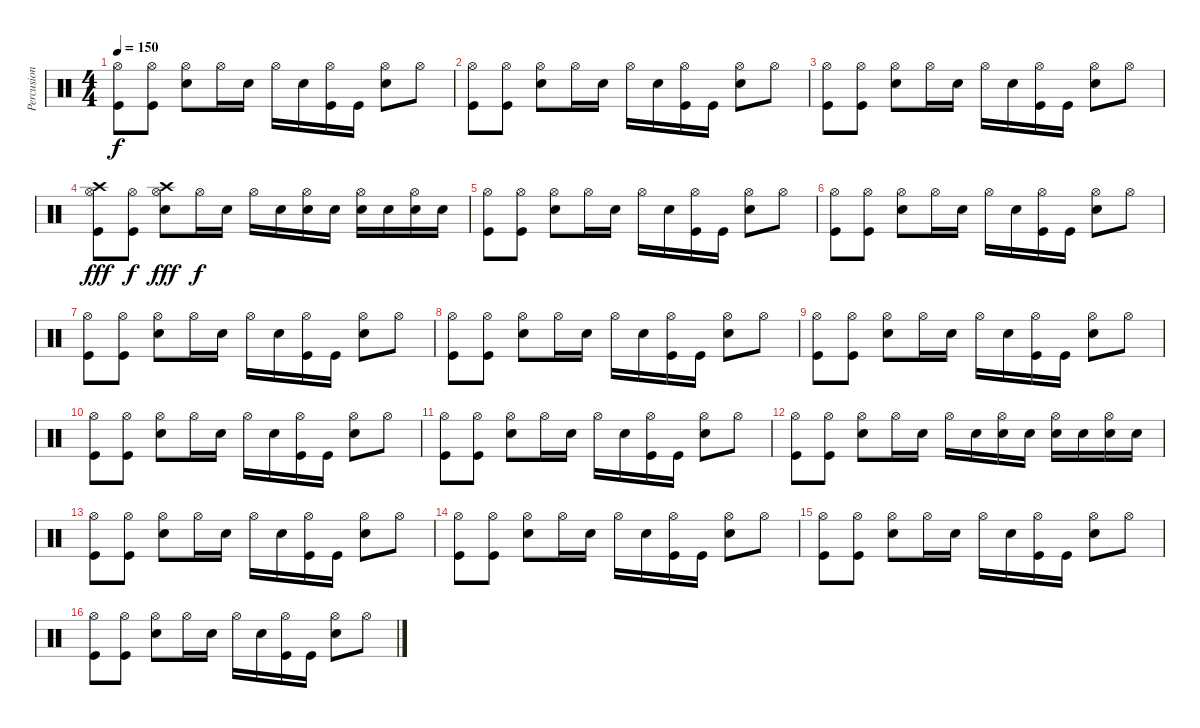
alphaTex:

\track ("Percusion" "Percusion") {instrument percussion}
\staff {score}
\articulation defaults
\ts (4 4)
\tempo 150
\clef neutral
\ks c
("Hi-Hat (open)" "Kick (hit)").8{dy f} ("Hi-Hat (open)" "Kick (hit)").8 ("Hi-Hat (open)" "Electric Snare (hit)").8 "Hi-Hat (open)".16 "Electric Snare (hit)".16 "Hi-Hat (open)".16 "Electric Snare (hit)".16 ("Hi-Hat (open)" "Kick (hit)").16 "Kick (hit)".16 ("Hi-Hat (open)" "Electric Snare (hit)").8 "Hi-Hat (open)".8 |
("Hi-Hat (open)" "Kick (hit)").8 ("Hi-Hat (open)" "Kick (hit)").8 ("Hi-Hat (open)" "Electric Snare (hit)").8 "Hi-Hat (open)".16 "Electric Snare (hit)".16 "Hi-Hat (open)".16 "Electric Snare (hit)".16 ("Hi-Hat (open)" "Kick (hit)").16 "Kick (hit)".16 ("Hi-Hat (open)" "Electric Snare (hit)").8 "Hi-Hat (open)".8 |
("Hi-Hat (open)" "Kick (hit)").8 ("Hi-Hat (open)" "Kick (hit)").8 ("Hi-Hat (open)" "Electric Snare (hit)").8 "Hi-Hat (open)".16 "Electric Snare (hit)".16 "Hi-Hat (open)".16 "Electric Snare (hit)".16 ("Hi-Hat (open)" "Kick (hit)").16 "Kick (hit)".16 ("Hi-Hat (open)" "Electric Snare (hit)").8 "Hi-Hat (open)".8 |
("Crash high (hit)" "Hi-Hat (open)" "Kick (hit)").8{dy fff} ("Hi-Hat (open)" "Kick (hit)").8{dy f} ("Crash high (hit)" "Hi-Hat (open)" "Electric Snare (hit)").8{dy fff} "Hi-Hat (open)".16{dy f} "Electric Snare (hit)".16 "Hi-Hat (open)".16 "Electric Snare (hit)".16 ("Hi-Hat (open)" "Electric Snare (hit)").16 "Electric Snare (hit)".16 ("Hi-Hat (open)" "Electric Snare (hit)").16 "Electric Snare (hit)".16 ("Hi-Hat (open)" "Electric Snare (hit)").16 "Electric Snare (hit)".16 |
("Hi-Hat (open)" "Kick (hit)").8 ("Hi-Hat (open)" "Kick (hit)").8 ("Hi-Hat (open)" "Electric Snare (hit)").8 "Hi-Hat (open)".16 "Electric Snare (hit)".16 "Hi-Hat (open)".16 "Electric Snare (hit)".16 ("Hi-Hat (open)" "Kick (hit)").16 "Kick (hit)".16 ("Hi-Hat (open)" "Electric Snare (hit)").8 "Hi-Hat (open)".8 |
("Hi-Hat (open)" "Kick (hit)").8 ("Hi-Hat (open)" "Kick (hit)").8 ("Hi-Hat (open)" "Electric Snare (hit)").8 "Hi-Hat (open)".16 "Electric Snare (hit)".16 "Hi-Hat (open)".16 "Electric Snare (hit)".16 ("Hi-Hat (open)" "Kick (hit)").16 "Kick (hit)".16 ("Hi-Hat (open)" "Electric Snare (hit)").8 "Hi-Hat (open)".8 |
("Hi-Hat (open)" "Kick (hit)").8 ("Hi-Hat (open)" "Kick (hit)").8 ("Hi-Hat (open)" "Electric Snare (hit)").8 "Hi-Hat (open)".16 "Electric Snare (hit)".16 "Hi-Hat (open)".16 "Electric Snare (hit)".16 ("Hi-Hat (open)" "Kick (hit)").16 "Kick (hit)".16 ("Hi-Hat (open)" "Electric Snare (hit)").8 "Hi-Hat (open)".8 |
("Hi-Hat (open)" "Kick (hit)").8 ("Hi-Hat (open)" "Kick (hit)").8 ("Hi-Hat (open)" "Electric Snare (hit)").8 "Hi-Hat (open)".16 "Electric Snare (hit)".16 "Hi-Hat (open)".16 "Electric Snare (hit)".16 ("Hi-Hat (open)" "Kick (hit)").16 "Kick (hit)".16 ("Hi-Hat (open)" "Electric Snare (hit)").8 "Hi-Hat (open)".8 |
("Hi-Hat (open)" "Kick (hit)").8 ("Hi-Hat (open)" "Kick (hit)").8 ("Hi-Hat (open)" "Electric Snare (hit)").8 "Hi-Hat (open)".16 "Electric Snare (hit)".16 "Hi-Hat (open)".16 "Electric Snare (hit)".16 ("Hi-Hat (open)" "Kick (hit)").16 "Kick (hit)".16 ("Hi-Hat (open)" "Electric Snare (hit)").8 "Hi-Hat (open)".8 |
("Hi-Hat (open)" "Kick (hit)").8 ("Hi-Hat (open)" "Kick (hit)").8 ("Hi-Hat (open)" "Electric Snare (hit)").8 "Hi-Hat (open)".16 "Electric Snare (hit)".16 "Hi-Hat (open)".16 "Electric Snare (hit)".16 ("Hi-Hat (open)" "Kick (hit)").16 "Kick (hit)".16 ("Hi-Hat (open)" "Electric Snare (hit)").8 "Hi-Hat (open)".8 |
("Hi-Hat (open)" "Kick (hit)").8 ("Hi-Hat (open)" "Kick (hit)").8 ("Hi-Hat (open)" "Electric Snare (hit)").8 "Hi-Hat (open)".16 "Electric Snare (hit)".16 "Hi-Hat (open)".16 "Electric Snare (hit)".16 ("Hi-Hat (open)" "Kick (hit)").16 "Kick (hit)".16 ("Hi-Hat (open)" "Electric Snare (hit)").8 "Hi-Hat (open)".8 |
("Hi-Hat (open)" "Kick (hit)").8 ("Hi-Hat (open)" "Kick (hit)").8 ("Hi-Hat (open)" "Electric Snare (hit)").8 "Hi-Hat (open)".16 "Electric Snare (hit)".16 "Hi-Hat (open)".16 "Electric Snare (hit)".16 ("Hi-Hat (open)" "Electric Snare (hit)").16 "Electric Snare (hit)".16 ("Hi-Hat (open)" "Electric Snare (hit)").16 "Electric Snare (hit)".16 ("Hi-Hat (open)" "Electric Snare (hit)").16 "Electric Snare (hit)".16 |
("Hi-Hat (open)" "Kick (hit)").8 ("Hi-Hat (open)" "Kick (hit)").8 ("Hi-Hat (open)" "Electric Snare (hit)").8 "Hi-Hat (open)".16 "Electric Snare (hit)".16 "Hi-Hat (open)".16 "Electric Snare (hit)".16 ("Hi-Hat (open)" "Kick (hit)").16 "Kick (hit)".16 ("Hi-Hat (open)" "Electric Snare (hit)").8 "Hi-Hat (open)".8 |
("Hi-Hat (open)" "Kick (hit)").8 ("Hi-Hat (open)" "Kick (hit)").8 ("Hi-Hat (open)" "Electric Snare (hit)").8 "Hi-Hat (open)".16 "Electric Snare (hit)".16 "Hi-Hat (open)".16 "Electric Snare (hit)".16 ("Hi-Hat (open)" "Kick (hit)").16 "Kick (hit)".16 ("Hi-Hat (open)" "Electric Snare (hit)").8 "Hi-Hat (open)".8 |
("Hi-Hat (open)" "Kick (hit)").8 ("Hi-Hat (open)" "Kick (hit)").8 ("Hi-Hat (open)" "Electric Snare (hit)").8 "Hi-Hat (open)".16 "Electric Snare (hit)".16 "Hi-Hat (open)".16 "Electric Snare (hit)".16 ("Hi-Hat (open)" "Kick (hit)").16 "Kick (hit)".16 ("Hi-Hat (open)" "Electric Snare (hit)").8 "Hi-Hat (open)".8 |
("Hi-Hat (open)" "Kick (hit)").8 ("Hi-Hat (open)" "Kick (hit)").8 ("Hi-Hat (open)" "Electric Snare (hit)").8 "Hi-Hat (open)".16 "Electric Snare (hit)".16 "Hi-Hat (open)".16 "Electric Snare (hit)".16 ("Hi-Hat (open)" "Kick (hit)").16 "Kick (hit)".16 ("Hi-Hat (open)" "Electric Snare (hit)").8 "Hi-Hat (open)".8
